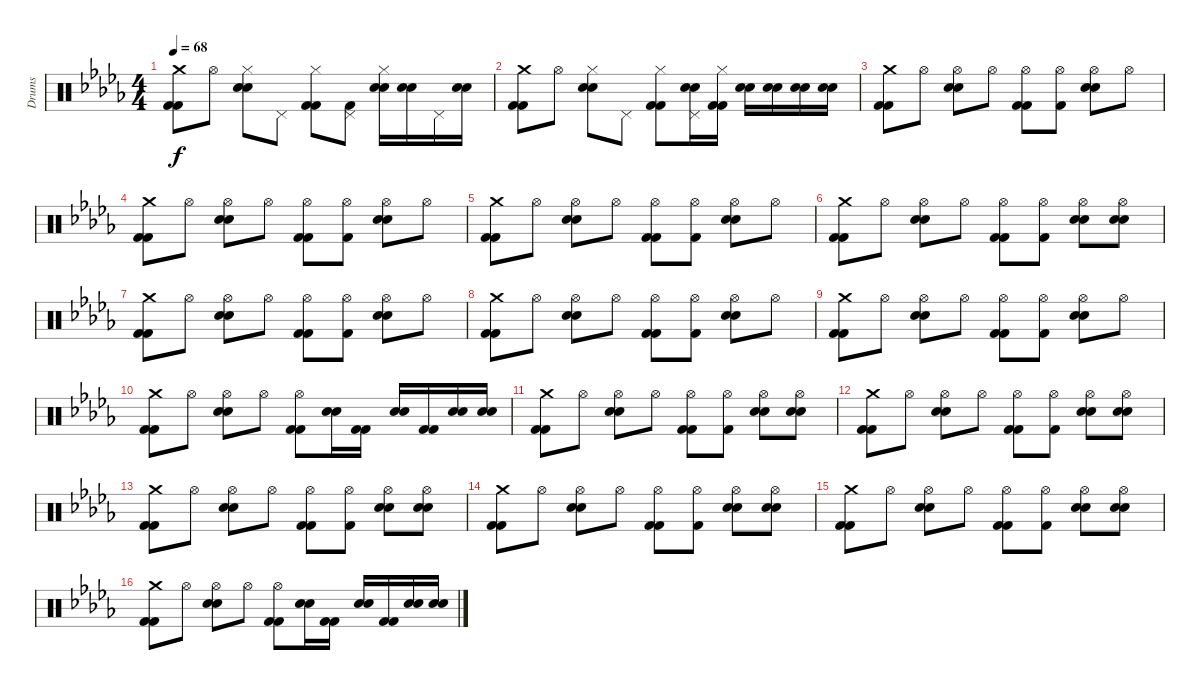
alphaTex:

\track ("Drums" "Drums") {instrument percussion}
\staff {score}
\articulation defaults
\ts (4 4)
\tempo 68
\clef neutral
\ks bbminor
("Crash medium (hit)" "Kick (hit) 2" "Kick (hit) 2").8{dy f} "Hi-Hat (open)".8 ("Hi-Hat (closed)" "Snare (hit) 2" "Snare (hit) 2").8 "Pedal Hi-Hat (hit)".8 ("Hi-Hat (closed)" "Kick (hit) 2" "Kick (hit) 2").8 ("Pedal Hi-Hat (hit)" "Kick (hit) 2").8 ("Hi-Hat (closed)" "Snare (hit) 2" "Snare (hit) 2").16 ("Snare (hit) 2" "Snare (hit) 2").16 "Pedal Hi-Hat (hit)".16 ("Snare (hit) 2" "Snare (hit) 2").16 |
("Crash medium (hit)" "Kick (hit) 2" "Kick (hit) 2").8 "Hi-Hat (open)".8 ("Hi-Hat (closed)" "Snare (hit) 2" "Snare (hit) 2").8 "Pedal Hi-Hat (hit)".8 ("Hi-Hat (closed)" "Kick (hit) 2" "Kick (hit) 2").8 ("Pedal Hi-Hat (hit)" "Snare (hit) 2" "Snare (hit) 2").16 ("Hi-Hat (closed)" "Kick (hit) 2" "Kick (hit) 2").16 ("Snare (hit) 2" "Snare (hit) 2").16 ("Snare (hit) 2" "Snare (hit) 2").16 ("Snare (hit) 2" "Snare (hit) 2").16 ("Snare (hit) 2" "Snare (hit) 2").16 |
("Crash medium (hit)" "Kick (hit) 2" "Kick (hit) 2").8 "Hi-Hat (open)".8 ("Hi-Hat (open)" "Snare (hit) 2" "Snare (hit) 2").8 "Hi-Hat (open)".8 ("Hi-Hat (open)" "Kick (hit) 2" "Kick (hit) 2").8 ("Hi-Hat (open)" "Kick (hit) 2").8 ("Hi-Hat (open)" "Snare (hit) 2" "Snare (hit) 2").8 "Hi-Hat (open)".8 |
("Crash medium (hit)" "Kick (hit) 2" "Kick (hit) 2").8 "Hi-Hat (open)".8 ("Hi-Hat (open)" "Snare (hit) 2" "Snare (hit) 2").8 "Hi-Hat (open)".8 ("Hi-Hat (open)" "Kick (hit) 2" "Kick (hit) 2").8 ("Hi-Hat (open)" "Kick (hit) 2").8 ("Hi-Hat (open)" "Snare (hit) 2" "Snare (hit) 2").8 "Hi-Hat (open)".8 |
("Crash medium (hit)" "Kick (hit) 2" "Kick (hit) 2").8 "Hi-Hat (open)".8 ("Hi-Hat (open)" "Snare (hit) 2" "Snare (hit) 2").8 "Hi-Hat (open)".8 ("Hi-Hat (open)" "Kick (hit) 2" "Kick (hit) 2").8 ("Hi-Hat (open)" "Kick (hit) 2").8 ("Hi-Hat (open)" "Snare (hit) 2" "Snare (hit) 2").8 "Hi-Hat (open)".8 |
("Crash medium (hit)" "Kick (hit) 2" "Kick (hit) 2").8 "Hi-Hat (open)".8 ("Hi-Hat (open)" "Snare (hit) 2" "Snare (hit) 2").8 "Hi-Hat (open)".8 ("Hi-Hat (open)" "Kick (hit) 2" "Kick (hit) 2").8 ("Hi-Hat (open)" "Kick (hit) 2").8 ("Hi-Hat (open)" "Snare (hit) 2" "Snare (hit) 2").8 ("Hi-Hat (open)" "Snare (hit) 2" "Snare (hit) 2").8 |
("Crash medium (hit)" "Kick (hit) 2" "Kick (hit) 2").8 "Hi-Hat (open)".8 ("Hi-Hat (open)" "Snare (hit) 2" "Snare (hit) 2").8 "Hi-Hat (open)".8 ("Hi-Hat (open)" "Kick (hit) 2" "Kick (hit) 2").8 ("Hi-Hat (open)" "Kick (hit) 2").8 ("Hi-Hat (open)" "Snare (hit) 2" "Snare (hit) 2").8 "Hi-Hat (open)".8 |
("Crash medium (hit)" "Kick (hit) 2" "Kick (hit) 2").8 "Hi-Hat (open)".8 ("Hi-Hat (open)" "Snare (hit) 2" "Snare (hit) 2").8 "Hi-Hat (open)".8 ("Hi-Hat (open)" "Kick (hit) 2" "Kick (hit) 2").8 ("Hi-Hat (open)" "Kick (hit) 2").8 ("Hi-Hat (open)" "Snare (hit) 2" "Snare (hit) 2").8 "Hi-Hat (open)".8 |
("Crash medium (hit)" "Kick (hit) 2" "Kick (hit) 2").8 "Hi-Hat (open)".8 ("Hi-Hat (open)" "Snare (hit) 2" "Snare (hit) 2").8 "Hi-Hat (open)".8 ("Hi-Hat (open)" "Kick (hit) 2" "Kick (hit) 2").8 ("Hi-Hat (open)" "Kick (hit) 2").8 ("Hi-Hat (open)" "Snare (hit) 2" "Snare (hit) 2").8 "Hi-Hat (open)".8 |
("Crash medium (hit)" "Kick (hit) 2" "Kick (hit) 2").8 "Hi-Hat (open)".8 ("Hi-Hat (open)" "Snare (hit) 2" "Snare (hit) 2").8 "Hi-Hat (open)".8 ("Hi-Hat (open)" "Kick (hit) 2" "Kick (hit) 2").8 ("Snare (hit) 2" "Snare (hit) 2").16 ("Kick (hit) 2" "Kick (hit) 2").16 ("Snare (hit) 2" "Snare (hit) 2").16 ("Kick (hit) 2" "Kick (hit) 2").16 ("Snare (hit) 2" "Snare (hit) 2").16 ("Snare (hit) 2" "Snare (hit) 2").16 |
("Crash medium (hit)" "Kick (hit) 2" "Kick (hit) 2").8 "Hi-Hat (open)".8 ("Hi-Hat (open)" "Snare (hit) 2" "Snare (hit) 2").8 "Hi-Hat (open)".8 ("Hi-Hat (open)" "Kick (hit) 2" "Kick (hit) 2").8 ("Hi-Hat (open)" "Kick (hit) 2").8 ("Hi-Hat (open)" "Snare (hit) 2" "Snare (hit) 2").8 ("Hi-Hat (open)" "Snare (hit) 2" "Snare (hit) 2").8 |
("Crash medium (hit)" "Kick (hit) 2" "Kick (hit) 2").8 "Hi-Hat (open)".8 ("Hi-Hat (open)" "Snare (hit) 2" "Snare (hit) 2").8 "Hi-Hat (open)".8 ("Hi-Hat (open)" "Kick (hit) 2" "Kick (hit) 2").8 ("Hi-Hat (open)" "Kick (hit) 2").8 ("Hi-Hat (open)" "Snare (hit) 2" "Snare (hit) 2").8 ("Hi-Hat (open)" "Snare (hit) 2" "Snare (hit) 2").8 |
("Crash medium (hit)" "Kick (hit) 2" "Kick (hit) 2").8 "Hi-Hat (open)".8 ("Hi-Hat (open)" "Snare (hit) 2" "Snare (hit) 2").8 "Hi-Hat (open)".8 ("Hi-Hat (open)" "Kick (hit) 2" "Kick (hit) 2").8 ("Hi-Hat (open)" "Kick (hit) 2").8 ("Hi-Hat (open)" "Snare (hit) 2" "Snare (hit) 2").8 ("Hi-Hat (open)" "Snare (hit) 2" "Snare (hit) 2").8 |
("Crash medium (hit)" "Kick (hit) 2" "Kick (hit) 2").8 "Hi-Hat (open)".8 ("Hi-Hat (open)" "Snare (hit) 2" "Snare (hit) 2").8 "Hi-Hat (open)".8 ("Hi-Hat (open)" "Kick (hit) 2" "Kick (hit) 2").8 ("Hi-Hat (open)" "Kick (hit) 2").8 ("Hi-Hat (open)" "Snare (hit) 2" "Snare (hit) 2").8 ("Hi-Hat (open)" "Snare (hit) 2" "Snare (hit) 2").8 |
("Crash medium (hit)" "Kick (hit) 2" "Kick (hit) 2").8 "Hi-Hat (open)".8 ("Hi-Hat (open)" "Snare (hit) 2" "Snare (hit) 2").8 "Hi-Hat (open)".8 ("Hi-Hat (open)" "Kick (hit) 2" "Kick (hit) 2").8 ("Hi-Hat (open)" "Kick (hit) 2").8 ("Hi-Hat (open)" "Snare (hit) 2" "Snare (hit) 2").8 ("Hi-Hat (open)" "Snare (hit) 2" "Snare (hit) 2").8 |
("Crash medium (hit)" "Kick (hit) 2" "Kick (hit) 2").8 "Hi-Hat (open)".8 ("Hi-Hat (open)" "Snare (hit) 2" "Snare (hit) 2").8 "Hi-Hat (open)".8 ("Hi-Hat (open)" "Kick (hit) 2" "Kick (hit) 2").8 ("Snare (hit) 2" "Snare (hit) 2").16 ("Kick (hit) 2" "Kick (hit) 2").16 ("Snare (hit) 2" "Snare (hit) 2").16 ("Kick (hit) 2" "Kick (hit) 2").16 ("Snare (hit) 2" "Snare (hit) 2").16 ("Snare (hit) 2" "Snare (hit) 2").16
